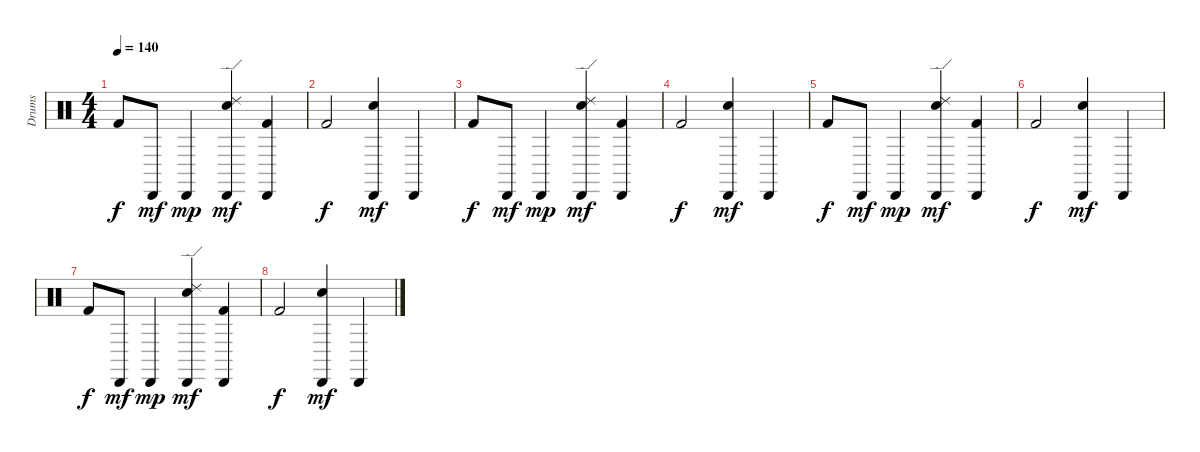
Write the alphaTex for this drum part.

\track ("Drums" "Drums") {instrument percussion}
\staff {score}
\articulation defaults
\ts (4 4)
\tempo 140
\clef neutral
\ks c "Kick (hit) 2".8{dy f} "Cabasa (hit)".8{dy mf} "Cabasa (hit)".4{dy mp}
("Snare (hit) 2" "Cabasa (hit)" "Ride (edge) 2").4{dy mf} ("Kick (hit) 2" "Cabasa (hit)").4 |
"Kick (hit) 2".2{dy f} ("Snare (hit) 2" "Cabasa (hit)").4{dy mf} "Cabasa (hit)".4 |
"Kick (hit) 2".8{dy f} "Cabasa (hit)".8{dy mf} "Cabasa (hit)".4{dy mp} ("Snare (hit) 2" "Cabasa (hit)" "Ride (edge) 2").4{dy mf} ("Kick (hit) 2" "Cabasa (hit)").4 |
"Kick (hit) 2".2{dy f} ("Snare (hit) 2" "Cabasa (hit)").4{dy mf} "Cabasa (hit)".4 |
"Kick (hit) 2".8{dy f} "Cabasa (hit)".8{dy mf} "Cabasa (hit)".4{dy mp} ("Snare (hit) 2" "Cabasa (hit)" "Ride (edge) 2").4{dy mf} ("Kick (hit) 2" "Cabasa (hit)").4 |
"Kick (hit) 2".2{dy f} ("Snare (hit) 2" "Cabasa (hit)").4{dy mf} "Cabasa (hit)".4 |
"Kick (hit) 2".8{dy f} "Cabasa (hit)".8{dy mf} "Cabasa (hit)".4{dy mp} ("Snare (hit) 2" "Cabasa (hit)" "Ride (edge) 2").4{dy mf} ("Kick (hit) 2" "Cabasa (hit)").4 |
"Kick (hit) 2".2{dy f} ("Snare (hit) 2" "Cabasa (hit)").4{dy mf} "Cabasa (hit)".4
